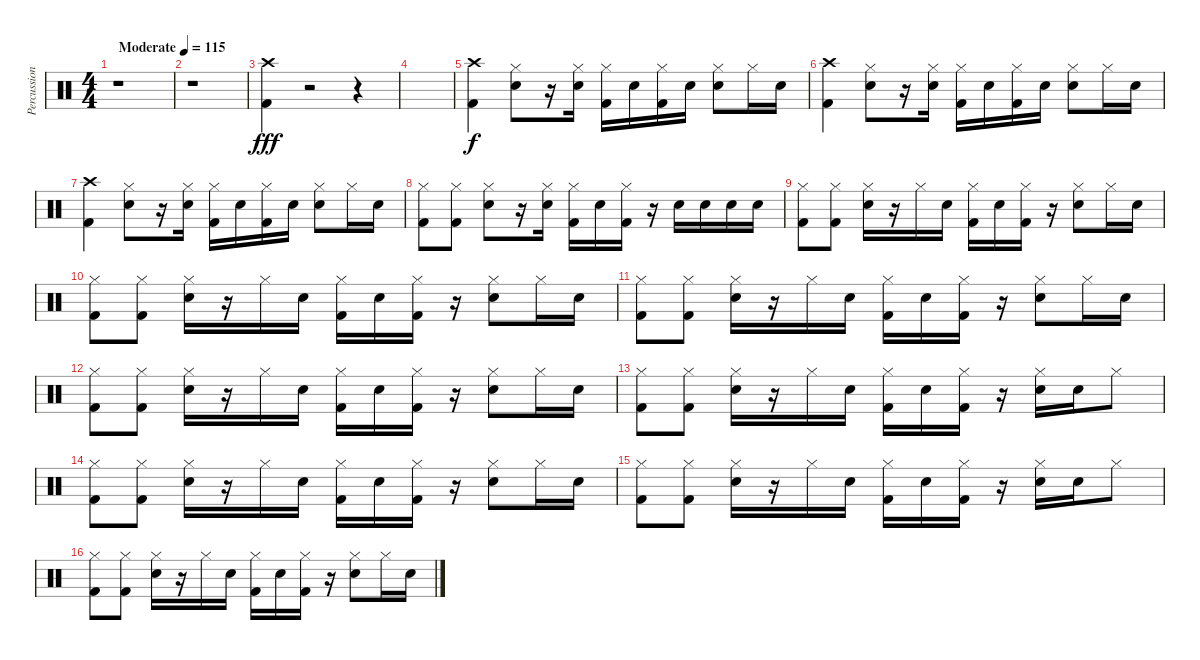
\track ("Percussion" "Percussion") {instrument percussion}
\staff {score}
\articulation defaults
\ts (4 4)
\tempo (115 "Moderate")
\clef neutral
\ks c
r.1{dy fff} |
r.1 |
("Crash high (hit)" "Kick (hit) 2").4 r.2 r.4 |
|
("Crash high (hit)" "Kick (hit) 2").4{dy f} ("Hi-Hat (closed)" "Snare (hit) 2").8 r.16 ("Hi-Hat (closed)" "Snare (hit) 2").16 ("Hi-Hat (closed)" "Kick (hit) 2").16 "Snare (hit) 2".16 ("Hi-Hat (closed)" "Kick (hit) 2").16 "Snare (hit)".16 ("Hi-Hat (closed)" "Snare (hit) 2").8 "Hi-Hat (closed)".16 "Snare (hit) 2".16 |
("Crash high (hit)" "Kick (hit) 2").4 ("Hi-Hat (closed)" "Snare (hit) 2").8 r.16 ("Hi-Hat (closed)" "Snare (hit) 2").16 ("Hi-Hat (closed)" "Kick (hit) 2").16 "Snare (hit) 2".16 ("Hi-Hat (closed)" "Kick (hit) 2").16 "Snare (hit)".16 ("Hi-Hat (closed)" "Snare (hit) 2").8 "Hi-Hat (closed)".16 "Snare (hit) 2".16 |
("Crash high (hit)" "Kick (hit) 2").4 ("Hi-Hat (closed)" "Snare (hit) 2").8 r.16 ("Hi-Hat (closed)" "Snare (hit) 2").16 ("Hi-Hat (closed)" "Kick (hit) 2").16 "Snare (hit) 2".16 ("Hi-Hat (closed)" "Kick (hit) 2").16 "Snare (hit)".16 ("Hi-Hat (closed)" "Snare (hit) 2").8 "Hi-Hat (closed)".16 "Snare (hit) 2".16 |
("Hi-Hat (closed)" "Kick (hit) 2").8 ("Hi-Hat (closed)" "Kick (hit) 2").8 ("Hi-Hat (closed)" "Snare (hit) 2").8 r.16 ("Hi-Hat (closed)" "Snare (hit) 2").16 ("Hi-Hat (closed)" "Kick (hit) 2").16 "Snare (hit) 2".16 ("Hi-Hat (closed)" "Kick (hit) 2").16 r.16 "Snare (hit) 2".16 "Snare (hit) 2".16 "Snare (hit) 2".16 "Snare (hit) 2".16 |
("Hi-Hat (closed)" "Kick (hit) 2").8 ("Hi-Hat (closed)" "Kick (hit) 2").8 ("Hi-Hat (closed)" "Snare (hit) 2").16 r.16 "Hi-Hat (closed)".16 "Snare (hit) 2".16 ("Hi-Hat (closed)" "Kick (hit) 2").16 "Snare (hit) 2".16 ("Hi-Hat (closed)" "Kick (hit) 2").16 r.16 ("Hi-Hat (closed)" "Snare (hit) 2").8 "Hi-Hat (closed)".16 "Snare (hit) 2".16 |
("Hi-Hat (closed)" "Kick (hit) 2").8 ("Hi-Hat (closed)" "Kick (hit) 2").8 ("Hi-Hat (closed)" "Snare (hit) 2").16 r.16 "Hi-Hat (closed)".16 "Snare (hit) 2".16 ("Hi-Hat (closed)" "Kick (hit) 2").16 "Snare (hit) 2".16 ("Hi-Hat (closed)" "Kick (hit) 2").16 r.16 ("Hi-Hat (closed)" "Snare (hit) 2").8 "Hi-Hat (closed)".16 "Snare (hit) 2".16 |
("Hi-Hat (closed)" "Kick (hit) 2").8 ("Hi-Hat (closed)" "Kick (hit) 2").8 ("Hi-Hat (closed)" "Snare (hit) 2").16 r.16 "Hi-Hat (closed)".16 "Snare (hit) 2".16 ("Hi-Hat (closed)" "Kick (hit) 2").16 "Snare (hit) 2".16 ("Hi-Hat (closed)" "Kick (hit) 2").16 r.16 ("Hi-Hat (closed)" "Snare (hit) 2").8 "Hi-Hat (closed)".16 "Snare (hit) 2".16 |
("Hi-Hat (closed)" "Kick (hit) 2").8 ("Hi-Hat (closed)" "Kick (hit) 2").8 ("Hi-Hat (closed)" "Snare (hit) 2").16 r.16 "Hi-Hat (closed)".16 "Snare (hit) 2".16 ("Hi-Hat (closed)" "Kick (hit) 2").16 "Snare (hit) 2".16 ("Hi-Hat (closed)" "Kick (hit) 2").16 r.16 ("Hi-Hat (closed)" "Snare (hit) 2").8 "Hi-Hat (closed)".16 "Snare (hit) 2".16 |
("Hi-Hat (closed)" "Kick (hit) 2").8 ("Hi-Hat (closed)" "Kick (hit) 2").8 ("Hi-Hat (closed)" "Snare (hit) 2").16 r.16 "Hi-Hat (closed)".16 "Snare (hit) 2".16 ("Hi-Hat (closed)" "Kick (hit) 2").16 "Snare (hit) 2".16 ("Hi-Hat (closed)" "Kick (hit) 2").16 r.16 ("Hi-Hat (closed)" "Snare (hit) 2").16 "Snare (hit) 2".16 "Hi-Hat (closed)".8 |
("Hi-Hat (closed)" "Kick (hit) 2").8 ("Hi-Hat (closed)" "Kick (hit) 2").8 ("Hi-Hat (closed)" "Snare (hit) 2").16 r.16 "Hi-Hat (closed)".16 "Snare (hit) 2".16 ("Hi-Hat (closed)" "Kick (hit) 2").16 "Snare (hit) 2".16 ("Hi-Hat (closed)" "Kick (hit) 2").16 r.16 ("Hi-Hat (closed)" "Snare (hit) 2").8 "Hi-Hat (closed)".16 "Snare (hit) 2".16 |
("Hi-Hat (closed)" "Kick (hit) 2").8 ("Hi-Hat (closed)" "Kick (hit) 2").8 ("Hi-Hat (closed)" "Snare (hit) 2").16 r.16 "Hi-Hat (closed)".16 "Snare (hit) 2".16 ("Hi-Hat (closed)" "Kick (hit) 2").16 "Snare (hit) 2".16 ("Hi-Hat (closed)" "Kick (hit) 2").16 r.16 ("Hi-Hat (closed)" "Snare (hit) 2").16 "Snare (hit) 2".16 "Hi-Hat (closed)".8 |
("Hi-Hat (closed)" "Kick (hit) 2").8 ("Hi-Hat (closed)" "Kick (hit) 2").8 ("Hi-Hat (closed)" "Snare (hit) 2").16 r.16 "Hi-Hat (closed)".16 "Snare (hit) 2".16 ("Hi-Hat (closed)" "Kick (hit) 2").16 "Snare (hit) 2".16 ("Hi-Hat (closed)" "Kick (hit) 2").16 r.16 ("Hi-Hat (closed)" "Snare (hit) 2").8 "Hi-Hat (closed)".16 "Snare (hit) 2".16
